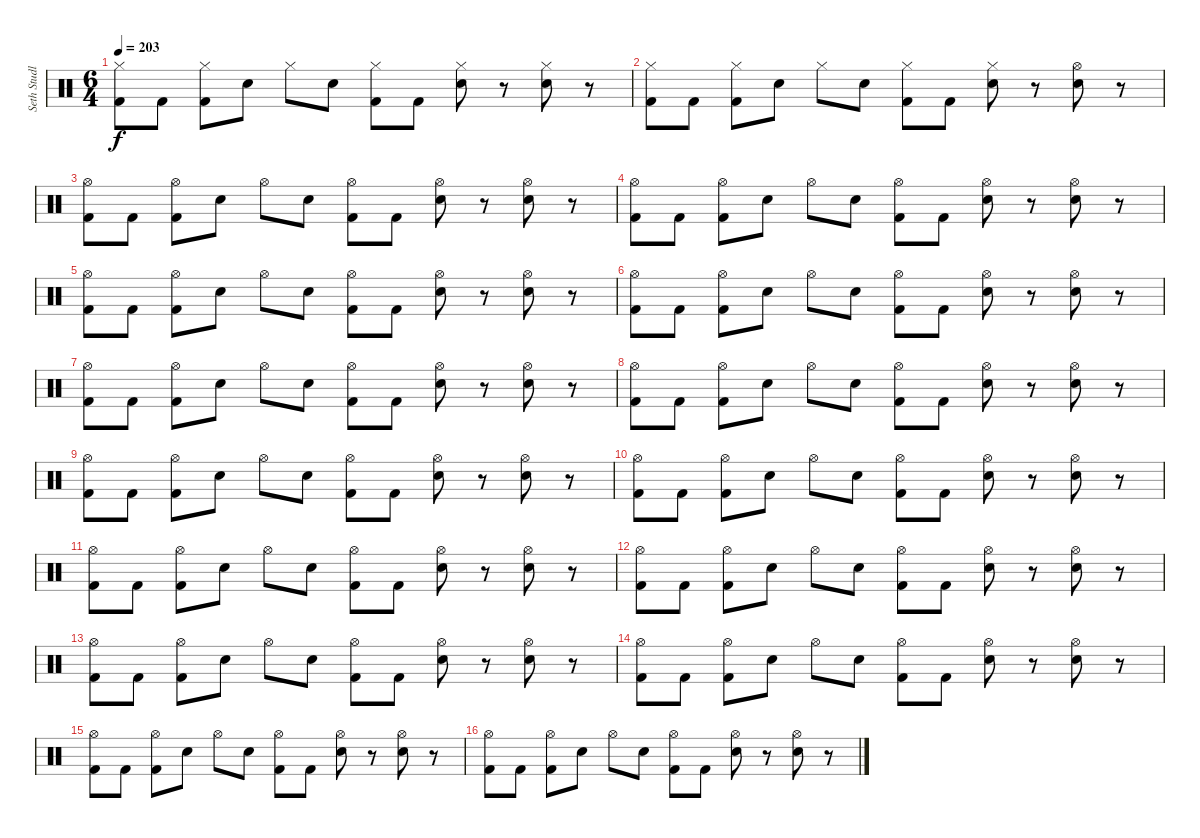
\track ("Seth Studley (Drums)" "Seth Studl") {instrument percussion}
\staff {score}
\articulation defaults
\ts (6 4)
\tempo 203
\clef neutral
\ks c
("Hi-Hat (closed)" "Kick (hit) 2").8{dy f} "Kick (hit) 2".8 ("Hi-Hat (closed)" "Kick (hit) 2").8 "Electric Snare (hit)".8 "Hi-Hat (closed)".8 "Electric Snare (hit)".8 ("Hi-Hat (closed)" "Kick (hit) 2").8 "Kick (hit) 2".8 ("Hi-Hat (closed)" "Electric Snare (hit)").8 r.8 ("Hi-Hat (closed)" "Electric Snare (hit)").8 r.8 |
("Hi-Hat (closed)" "Kick (hit) 2").8 "Kick (hit) 2".8 ("Hi-Hat (closed)" "Kick (hit) 2").8 "Electric Snare (hit)".8 "Hi-Hat (closed)".8 "Electric Snare (hit)".8 ("Hi-Hat (closed)" "Kick (hit) 2").8 "Kick (hit) 2".8 ("Hi-Hat (closed)" "Electric Snare (hit)").8 r.8 ("Hi-Hat (open)" "Electric Snare (hit)").8 r.8 |
("Hi-Hat (open)" "Kick (hit) 2").8 "Kick (hit) 2".8 ("Hi-Hat (open)" "Kick (hit) 2").8 "Electric Snare (hit)".8 "Hi-Hat (open)".8 "Electric Snare (hit)".8 ("Hi-Hat (open)" "Kick (hit) 2").8 "Kick (hit) 2".8 ("Hi-Hat (open)" "Electric Snare (hit)").8 r.8 ("Hi-Hat (open)" "Electric Snare (hit)").8 r.8 |
("Hi-Hat (open)" "Kick (hit) 2").8 "Kick (hit) 2".8 ("Hi-Hat (open)" "Kick (hit) 2").8 "Electric Snare (hit)".8 "Hi-Hat (open)".8 "Electric Snare (hit)".8 ("Hi-Hat (open)" "Kick (hit) 2").8 "Kick (hit) 2".8 ("Hi-Hat (open)" "Electric Snare (hit)").8 r.8 ("Hi-Hat (open)" "Electric Snare (hit)").8 r.8 |
("Hi-Hat (open)" "Kick (hit) 2").8 "Kick (hit) 2".8 ("Hi-Hat (open)" "Kick (hit) 2").8 "Electric Snare (hit)".8 "Hi-Hat (open)".8 "Electric Snare (hit)".8 ("Hi-Hat (open)" "Kick (hit) 2").8 "Kick (hit) 2".8 ("Hi-Hat (open)" "Electric Snare (hit)").8 r.8 ("Hi-Hat (open)" "Electric Snare (hit)").8 r.8 |
("Hi-Hat (open)" "Kick (hit) 2").8 "Kick (hit) 2".8 ("Hi-Hat (open)" "Kick (hit) 2").8 "Electric Snare (hit)".8 "Hi-Hat (open)".8 "Electric Snare (hit)".8 ("Hi-Hat (open)" "Kick (hit) 2").8 "Kick (hit) 2".8 ("Hi-Hat (open)" "Electric Snare (hit)").8 r.8 ("Hi-Hat (open)" "Electric Snare (hit)").8 r.8 |
("Hi-Hat (open)" "Kick (hit) 2").8 "Kick (hit) 2".8 ("Hi-Hat (open)" "Kick (hit) 2").8 "Electric Snare (hit)".8 "Hi-Hat (open)".8 "Electric Snare (hit)".8 ("Hi-Hat (open)" "Kick (hit) 2").8 "Kick (hit) 2".8 ("Hi-Hat (open)" "Electric Snare (hit)").8 r.8 ("Hi-Hat (open)" "Electric Snare (hit)").8 r.8 |
("Hi-Hat (open)" "Kick (hit) 2").8 "Kick (hit) 2".8 ("Hi-Hat (open)" "Kick (hit) 2").8 "Electric Snare (hit)".8 "Hi-Hat (open)".8 "Electric Snare (hit)".8 ("Hi-Hat (open)" "Kick (hit) 2").8 "Kick (hit) 2".8 ("Hi-Hat (open)" "Electric Snare (hit)").8 r.8 ("Hi-Hat (open)" "Electric Snare (hit)").8 r.8 |
("Hi-Hat (open)" "Kick (hit) 2").8 "Kick (hit) 2".8 ("Hi-Hat (open)" "Kick (hit) 2").8 "Electric Snare (hit)".8 "Hi-Hat (open)".8 "Electric Snare (hit)".8 ("Hi-Hat (open)" "Kick (hit) 2").8 "Kick (hit) 2".8 ("Hi-Hat (open)" "Electric Snare (hit)").8 r.8 ("Hi-Hat (open)" "Electric Snare (hit)").8 r.8 |
("Hi-Hat (open)" "Kick (hit) 2").8 "Kick (hit) 2".8 ("Hi-Hat (open)" "Kick (hit) 2").8 "Electric Snare (hit)".8 "Hi-Hat (open)".8 "Electric Snare (hit)".8 ("Hi-Hat (open)" "Kick (hit) 2").8 "Kick (hit) 2".8 ("Hi-Hat (open)" "Electric Snare (hit)").8 r.8 ("Hi-Hat (open)" "Electric Snare (hit)").8 r.8 |
("Hi-Hat (open)" "Kick (hit) 2").8 "Kick (hit) 2".8 ("Hi-Hat (open)" "Kick (hit) 2").8 "Electric Snare (hit)".8 "Hi-Hat (open)".8 "Electric Snare (hit)".8 ("Hi-Hat (open)" "Kick (hit) 2").8 "Kick (hit) 2".8 ("Hi-Hat (open)" "Electric Snare (hit)").8 r.8 ("Hi-Hat (open)" "Electric Snare (hit)").8 r.8 |
("Hi-Hat (open)" "Kick (hit) 2").8 "Kick (hit) 2".8 ("Hi-Hat (open)" "Kick (hit) 2").8 "Electric Snare (hit)".8 "Hi-Hat (open)".8 "Electric Snare (hit)".8 ("Hi-Hat (open)" "Kick (hit) 2").8 "Kick (hit) 2".8 ("Hi-Hat (open)" "Electric Snare (hit)").8 r.8 ("Hi-Hat (open)" "Electric Snare (hit)").8 r.8 |
("Hi-Hat (open)" "Kick (hit) 2").8 "Kick (hit) 2".8 ("Hi-Hat (open)" "Kick (hit) 2").8 "Electric Snare (hit)".8 "Hi-Hat (open)".8 "Electric Snare (hit)".8 ("Hi-Hat (open)" "Kick (hit) 2").8 "Kick (hit) 2".8 ("Hi-Hat (open)" "Electric Snare (hit)").8 r.8 ("Hi-Hat (open)" "Electric Snare (hit)").8 r.8 |
("Hi-Hat (open)" "Kick (hit) 2").8 "Kick (hit) 2".8 ("Hi-Hat (open)" "Kick (hit) 2").8 "Electric Snare (hit)".8 "Hi-Hat (open)".8 "Electric Snare (hit)".8 ("Hi-Hat (open)" "Kick (hit) 2").8 "Kick (hit) 2".8 ("Hi-Hat (open)" "Electric Snare (hit)").8 r.8 ("Hi-Hat (open)" "Electric Snare (hit)").8 r.8 |
("Hi-Hat (open)" "Kick (hit) 2").8 "Kick (hit) 2".8 ("Hi-Hat (open)" "Kick (hit) 2").8 "Electric Snare (hit)".8 "Hi-Hat (open)".8 "Electric Snare (hit)".8 ("Hi-Hat (open)" "Kick (hit) 2").8 "Kick (hit) 2".8 ("Hi-Hat (open)" "Electric Snare (hit)").8 r.8 ("Hi-Hat (open)" "Electric Snare (hit)").8 r.8 |
("Hi-Hat (open)" "Kick (hit) 2").8 "Kick (hit) 2".8 ("Hi-Hat (open)" "Kick (hit) 2").8 "Electric Snare (hit)".8 "Hi-Hat (open)".8 "Electric Snare (hit)".8 ("Hi-Hat (open)" "Kick (hit) 2").8 "Kick (hit) 2".8 ("Hi-Hat (open)" "Electric Snare (hit)").8 r.8 ("Hi-Hat (open)" "Electric Snare (hit)").8 r.8
